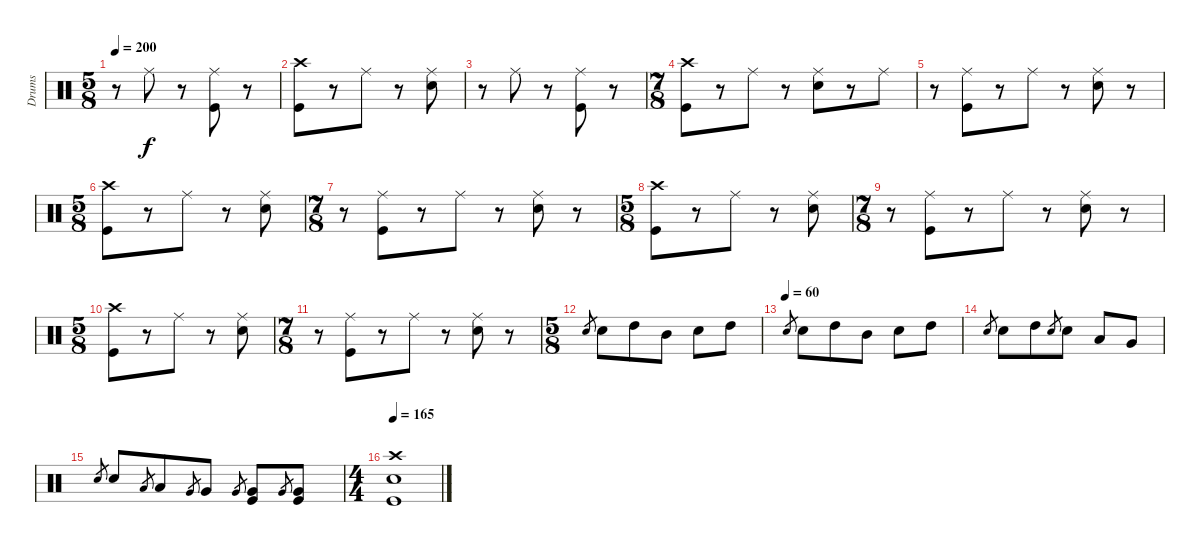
\track ("Drums" "Drums") {instrument percussion}
\staff {score}
\articulation defaults
\ts (5 8)
\tempo 200
\clef neutral
\ks c
r.8{dy f} "Ride (middle)".8 r.8 ("Ride (middle)" "Kick (hit)").8 r.8 |
("Crash high (hit)" "Kick (hit)").8 r.8 "Ride (middle)".8 r.8 ("Ride (middle)" "Electric Snare (hit)").8 |
r.8 "Ride (middle)".8 r.8 ("Ride (middle)" "Kick (hit)").8 r.8 |
\ts (7 8)
("Crash high (hit)" "Kick (hit)").8 r.8 "Ride (middle)".8 r.8 ("Ride (middle)" "Electric Snare (hit)").8 r.8 "Ride (middle)".8 |
r.8 ("Ride (middle)" "Kick (hit)").8 r.8 "Ride (middle)".8 r.8 ("Ride (middle)" "Electric Snare (hit)").8 r.8 |
\ts (5 8)
("Crash high (hit)" "Kick (hit)").8 r.8 "Ride (middle)".8 r.8 ("Ride (middle)" "Electric Snare (hit)").8 |
\ts (7 8)
r.8 ("Ride (middle)" "Kick (hit)").8 r.8 "Ride (middle)".8 r.8 ("Ride (middle)" "Electric Snare (hit)").8 r.8 |
\ts (5 8)
("Crash high (hit)" "Kick (hit)").8 r.8 "Ride (middle)".8 r.8 ("Ride (middle)" "Electric Snare (hit)").8 |
\ts (7 8)
r.8 ("Ride (middle)" "Kick (hit)").8 r.8 "Ride (middle)".8 r.8 ("Ride (middle)" "Electric Snare (hit)").8 r.8 |
\ts (5 8)
("Crash high (hit)" "Kick (hit)").8 r.8 "Ride (middle)".8 r.8 ("Ride (middle)" "Electric Snare (hit)").8 |
\ts (7 8)
r.8 ("Ride (middle)" "Kick (hit)").8 r.8 "Ride (middle)".8 r.8 ("Ride (middle)" "Electric Snare (hit)").8 r.8 |
\ts (5 8)
"Electric Snare (hit)".8{gr} "Electric Snare (hit)".8 "High Tom (hit)".8 "Mid Tom (hit)".8 "Electric Snare (hit)".8 "High Tom (hit)".8 |
\tempo (60)
"Electric Snare (hit)".8{gr} "Electric Snare (hit)".8 "High Tom (hit)".8 "Mid Tom (hit)".8 "Electric Snare (hit)".8 "High Tom (hit)".8 |
"Electric Snare (hit)".8{gr} "Electric Snare (hit)".8 "High Tom (hit)".8 "Electric Snare (hit)".8{gr} "Electric Snare (hit)".8 "Low Tom (hit)".8 "Very Low Tom (hit)".8 |
"Electric Snare (hit)".8{gr} "Electric Snare (hit)".8 "Low Tom (hit)".8{gr} "Low Tom (hit)".8 "Very Low Tom (hit)".8{gr} "Very Low Tom (hit)".8 "Very Low Tom (hit)".8{gr} ("Very Low Tom (hit)" "Kick (hit)").8 "Very Low Tom (hit)".8{gr} ("Very Low Tom (hit)" "Kick (hit)").8 |
\ts (4 4)
\tempo 165
("Crash high (hit)" "Electric Snare (hit)" "Kick (hit)").1
